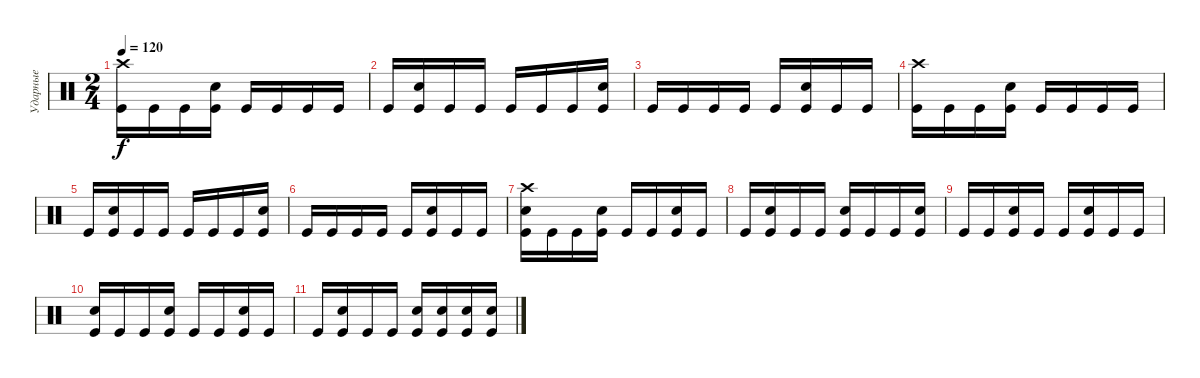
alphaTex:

\track ("Ударные" "Ударные") {instrument percussion}
\staff {score}
\articulation defaults
\ts (2 4)
\tempo 120
\clef neutral
\ks c
("Crash high (hit)" "Kick (hit)").16{dy f} "Kick (hit)".16 "Kick (hit)".16 ("Electric Snare (hit)" "Kick (hit)").16 "Kick (hit)".16 "Kick (hit)".16 "Kick (hit)".16 "Kick (hit)".16 |
"Kick (hit)".16 ("Electric Snare (hit)" "Kick (hit)").16 "Kick (hit)".16 "Kick (hit)".16 "Kick (hit)".16 "Kick (hit)".16 "Kick (hit)".16 ("Electric Snare (hit)" "Kick (hit)").16 |
"Kick (hit)".16 "Kick (hit)".16 "Kick (hit)".16 "Kick (hit)".16 "Kick (hit)".16 ("Electric Snare (hit)" "Kick (hit)").16 "Kick (hit)".16 "Kick (hit)".16 |
("Crash high (hit)" "Kick (hit)").16 "Kick (hit)".16 "Kick (hit)".16 ("Electric Snare (hit)" "Kick (hit)").16 "Kick (hit)".16 "Kick (hit)".16 "Kick (hit)".16 "Kick (hit)".16 |
"Kick (hit)".16 ("Electric Snare (hit)" "Kick (hit)").16 "Kick (hit)".16 "Kick (hit)".16 "Kick (hit)".16 "Kick (hit)".16 "Kick (hit)".16 ("Electric Snare (hit)" "Kick (hit)").16 |
"Kick (hit)".16 "Kick (hit)".16 "Kick (hit)".16 "Kick (hit)".16 "Kick (hit)".16 ("Electric Snare (hit)" "Kick (hit)").16 "Kick (hit)".16 "Kick (hit)".16 |
("Crash high (hit)" "Electric Snare (hit)" "Kick (hit)").16 "Kick (hit)".16 "Kick (hit)".16 ("Electric Snare (hit)" "Kick (hit)").16 "Kick (hit)".16 "Kick (hit)".16 ("Electric Snare (hit)" "Kick (hit)").16 "Kick (hit)".16 |
"Kick (hit)".16 ("Electric Snare (hit)" "Kick (hit)").16 "Kick (hit)".16 "Kick (hit)".16 ("Electric Snare (hit)" "Kick (hit)").16 "Kick (hit)".16 "Kick (hit)".16 ("Electric Snare (hit)" "Kick (hit)").16 |
"Kick (hit)".16 "Kick (hit)".16 ("Electric Snare (hit)" "Kick (hit)").16 "Kick (hit)".16 "Kick (hit)".16 ("Electric Snare (hit)" "Kick (hit)").16 "Kick (hit)".16 "Kick (hit)".16 |
("Electric Snare (hit)" "Kick (hit)").16 "Kick (hit)".16 "Kick (hit)".16 ("Electric Snare (hit)" "Kick (hit)").16 "Kick (hit)".16 "Kick (hit)".16 ("Electric Snare (hit)" "Kick (hit)").16 "Kick (hit)".16 |
"Kick (hit)".16 ("Electric Snare (hit)" "Kick (hit)").16 "Kick (hit)".16 "Kick (hit)".16 ("Electric Snare (hit)" "Kick (hit)").16 ("Electric Snare (hit)" "Kick (hit)").16 ("Electric Snare (hit)" "Kick (hit)").16 ("Electric Snare (hit)" "Kick (hit)").16
